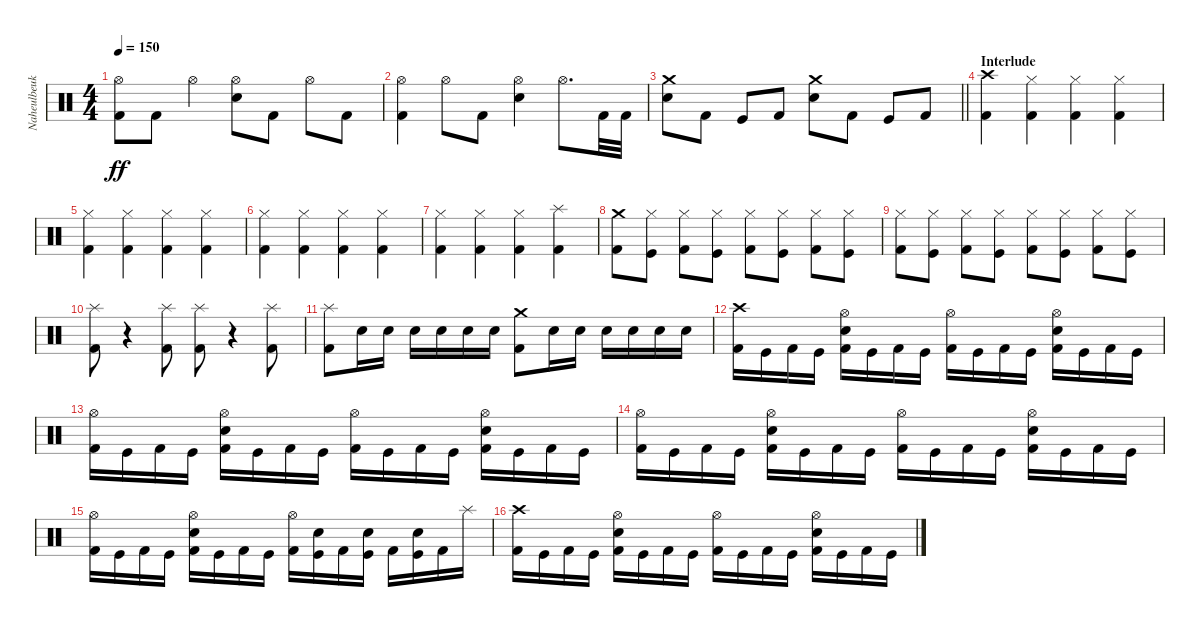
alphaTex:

\track ("Naheulbeuk" "Naheulbeuk") {instrument percussion}
\staff {score}
\articulation defaults
\ts (4 4)
\tempo 150
\clef neutral
\ks c
("Hi-Hat (open)" "Kick (hit) 2").8{dy ff} "Kick (hit) 2".8 "Hi-Hat (open)".4 ("Hi-Hat (open)" "Snare (hit) 2").8 "Kick (hit) 2".8 "Hi-Hat (open)".8 "Kick (hit) 2".8 |
("Hi-Hat (open)" "Kick (hit) 2").4 "Hi-Hat (open)".8 "Kick (hit) 2".8 ("Hi-Hat (open)" "Snare (hit) 2").4 "Hi-Hat (open)".8{d} "Kick (hit) 2".32 "Kick (hit) 2".32 |
\barLineRight lightlight
("Crash medium (hit)" "Snare (hit) 2").8 "Kick (hit) 2".8 "Kick (hit)".8 "Kick (hit) 2".8 ("Crash medium (hit)" "Snare (hit) 2").8 "Kick (hit) 2".8 "Kick (hit)".8 "Kick (hit) 2".8 |
\section ("" "Interlude")
("Crash high (hit)" "Kick (hit) 2").4 ("Hi-Hat (closed)" "Kick (hit) 2").4 ("Hi-Hat (closed)" "Kick (hit) 2").4 ("Hi-Hat (closed)" "Kick (hit) 2").4 |
("Hi-Hat (closed)" "Kick (hit) 2").4 ("Hi-Hat (closed)" "Kick (hit) 2").4 ("Hi-Hat (closed)" "Kick (hit) 2").4 ("Hi-Hat (closed)" "Kick (hit) 2").4 |
("Hi-Hat (closed)" "Kick (hit) 2").4 ("Hi-Hat (closed)" "Kick (hit) 2").4 ("Hi-Hat (closed)" "Kick (hit) 2").4 ("Hi-Hat (closed)" "Kick (hit) 2").4 |
("Hi-Hat (closed)" "Kick (hit) 2").4 ("Hi-Hat (closed)" "Kick (hit) 2").4 ("Hi-Hat (closed)" "Kick (hit) 2").4 ("Splash (hit)" "Kick (hit) 2").4 |
("Crash medium (hit)" "Kick (hit) 2").8 ("Hi-Hat (closed)" "Kick (hit)").8 ("Hi-Hat (closed)" "Kick (hit) 2").8 ("Hi-Hat (closed)" "Kick (hit)").8 ("Hi-Hat (closed)" "Kick (hit) 2").8 ("Hi-Hat (closed)" "Kick (hit)").8 ("Hi-Hat (closed)" "Kick (hit) 2").8 ("Hi-Hat (closed)" "Kick (hit)").8 |
("Hi-Hat (closed)" "Kick (hit) 2").8 ("Hi-Hat (closed)" "Kick (hit)").8 ("Hi-Hat (closed)" "Kick (hit) 2").8 ("Hi-Hat (closed)" "Kick (hit)").8 ("Hi-Hat (closed)" "Kick (hit) 2").8 ("Hi-Hat (closed)" "Kick (hit)").8 ("Hi-Hat (closed)" "Kick (hit) 2").8 ("Hi-Hat (closed)" "Kick (hit)").8 |
("Splash (hit)" "Kick (hit) 2").8 r.4 ("Splash (hit)" "Kick (hit) 2").8 ("Splash (hit)" "Kick (hit) 2").8 r.4 ("Splash (hit)" "Kick (hit) 2").8 |
("Splash (hit)" "Kick (hit) 2").8 "Snare (hit) 2".16 "Snare (hit) 2".16 "Snare (hit) 2".16 "Snare (hit) 2".16 "Snare (hit) 2".16 "Snare (hit) 2".16 ("Crash medium (hit)" "Kick (hit) 2").8 "Snare (hit) 2".16 "Snare (hit) 2".16 "Snare (hit) 2".16 "Snare (hit) 2".16 "Snare (hit) 2".16 "Snare (hit) 2".16 |
("Crash high (hit)" "Kick (hit) 2").16 "Kick (hit)".16 "Kick (hit) 2".16 "Kick (hit)".16 ("Hi-Hat (open)" "Snare (hit) 2" "Kick (hit) 2").16 "Kick (hit)".16 "Kick (hit) 2".16 "Kick (hit)".16 ("Hi-Hat (open)" "Kick (hit) 2").16 "Kick (hit)".16 "Kick (hit) 2".16 "Kick (hit)".16 ("Hi-Hat (open)" "Snare (hit) 2" "Kick (hit) 2").16 "Kick (hit)".16 "Kick (hit) 2".16 "Kick (hit)".16 |
("Hi-Hat (open)" "Kick (hit) 2").16 "Kick (hit)".16 "Kick (hit) 2".16 "Kick (hit)".16 ("Hi-Hat (open)" "Snare (hit) 2" "Kick (hit) 2").16 "Kick (hit)".16 "Kick (hit) 2".16 "Kick (hit)".16 ("Hi-Hat (open)" "Kick (hit) 2").16 "Kick (hit)".16 "Kick (hit) 2".16 "Kick (hit)".16 ("Hi-Hat (open)" "Snare (hit) 2" "Kick (hit) 2").16 "Kick (hit)".16 "Kick (hit) 2".16 "Kick (hit)".16 |
("Hi-Hat (open)" "Kick (hit) 2").16 "Kick (hit)".16 "Kick (hit) 2".16 "Kick (hit)".16 ("Hi-Hat (open)" "Snare (hit) 2" "Kick (hit) 2").16 "Kick (hit)".16 "Kick (hit) 2".16 "Kick (hit)".16 ("Hi-Hat (open)" "Kick (hit) 2").16 "Kick (hit)".16 "Kick (hit) 2".16 "Kick (hit)".16 ("Hi-Hat (open)" "Snare (hit) 2" "Kick (hit) 2").16 "Kick (hit)".16 "Kick (hit) 2".16 "Kick (hit)".16 |
("Hi-Hat (open)" "Kick (hit) 2").16 "Kick (hit)".16 "Kick (hit) 2".16 "Kick (hit)".16 ("Hi-Hat (open)" "Snare (hit) 2" "Kick (hit) 2").16 "Kick (hit)".16 "Kick (hit) 2".16 "Kick (hit)".16 ("Hi-Hat (open)" "Kick (hit) 2").16 ("Snare (hit) 2" "Kick (hit)").16 "Kick (hit) 2".16 ("Snare (hit) 2" "Kick (hit)").16 "Kick (hit) 2".16 ("Snare (hit) 2" "Kick (hit)").16 "Kick (hit) 2".16 "Splash (hit)".16 |
("Crash high (hit)" "Kick (hit) 2").16 "Kick (hit)".16 "Kick (hit) 2".16 "Kick (hit)".16 ("Hi-Hat (open)" "Snare (hit) 2" "Kick (hit) 2").16 "Kick (hit)".16 "Kick (hit) 2".16 "Kick (hit)".16 ("Hi-Hat (open)" "Kick (hit) 2").16 "Kick (hit)".16 "Kick (hit) 2".16 "Kick (hit)".16 ("Hi-Hat (open)" "Snare (hit) 2" "Kick (hit) 2").16 "Kick (hit)".16 "Kick (hit) 2".16 "Kick (hit)".16
